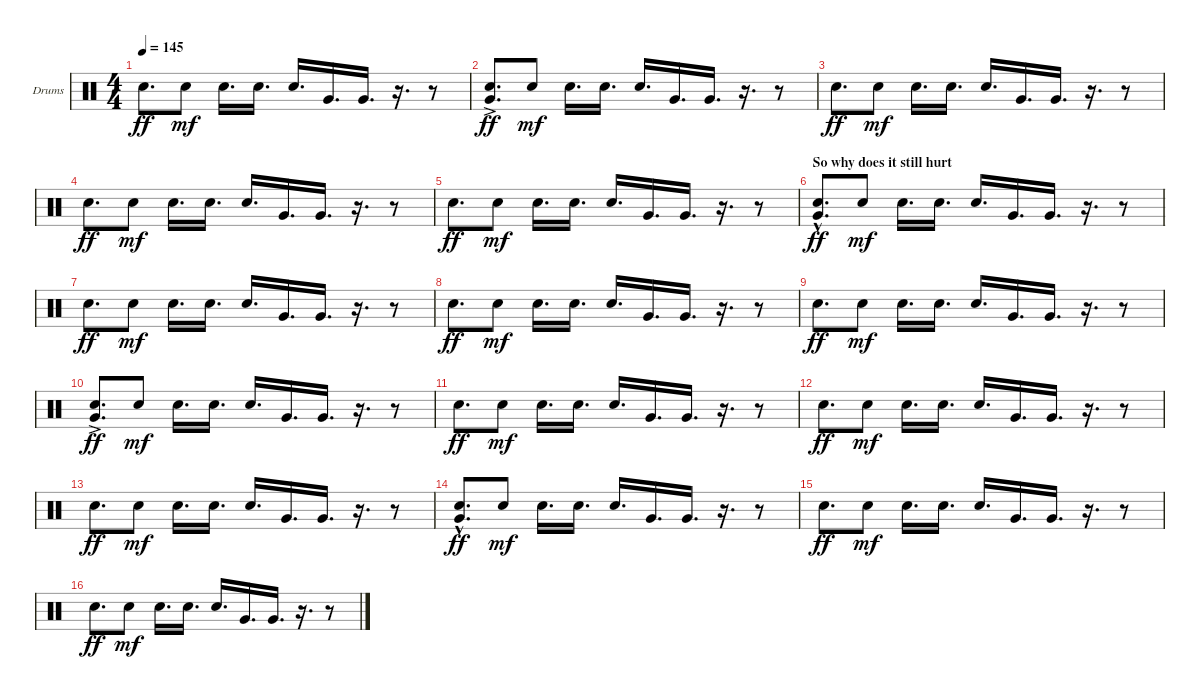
\defaultSystemsLayout 4
\bracketExtendMode groupsimilarinstruments
\firstSystemTrackNameOrientation horizontal
\otherSystemsTrackNameOrientation horizontal
\track ("Drumkit" "Drums") {instrument percussion}
\staff {score}
\articulation defaults
\ts (4 4)
\tempo 145
\clef neutral
\ks c "Snare (hit) 2".8{d dy ff} "Snare (hit) 2".8{dy mf} "Snare (hit) 2".16{d} "Snare (hit) 2".16{d} "Snare (hit) 2".16{d} "Very Low Tom (hit)".16{d} "Very Low Tom (hit)".16{d}
r.16{d} r.8 |
("Snare (hit) 2" "Very Low Tom (hit)"{ac}).8{d dy ff} "Snare (hit) 2".8{dy mf} "Snare (hit) 2".16{d} "Snare (hit) 2".16{d} "Snare (hit) 2".16{d} "Very Low Tom (hit)".16{d} "Very Low Tom (hit)".16{d} r.16{d} r.8 |
"Snare (hit) 2".8{d dy ff} "Snare (hit) 2".8{dy mf} "Snare (hit) 2".16{d} "Snare (hit) 2".16{d} "Snare (hit) 2".16{d} "Very Low Tom (hit)".16{d} "Very Low Tom (hit)".16{d} r.16{d} r.8 |
"Snare (hit) 2".8{d dy ff} "Snare (hit) 2".8{dy mf} "Snare (hit) 2".16{d} "Snare (hit) 2".16{d} "Snare (hit) 2".16{d} "Very Low Tom (hit)".16{d} "Very Low Tom (hit)".16{d} r.16{d} r.8 |
"Snare (hit) 2".8{d dy ff} "Snare (hit) 2".8{dy mf} "Snare (hit) 2".16{d} "Snare (hit) 2".16{d} "Snare (hit) 2".16{d} "Very Low Tom (hit)".16{d} "Very Low Tom (hit)".16{d} r.16{d} r.8 |
\section ("" "So why does it still hurt")
("Snare (hit) 2" "Very Low Tom (hit)"{hac}).8{d dy ff} "Snare (hit) 2".8{dy mf} "Snare (hit) 2".16{d} "Snare (hit) 2".16{d} "Snare (hit) 2".16{d} "Very Low Tom (hit)".16{d} "Very Low Tom (hit)".16{d} r.16{d} r.8 |
"Snare (hit) 2".8{d dy ff} "Snare (hit) 2".8{dy mf} "Snare (hit) 2".16{d} "Snare (hit) 2".16{d} "Snare (hit) 2".16{d} "Very Low Tom (hit)".16{d} "Very Low Tom (hit)".16{d} r.16{d} r.8 |
"Snare (hit) 2".8{d dy ff} "Snare (hit) 2".8{dy mf} "Snare (hit) 2".16{d} "Snare (hit) 2".16{d} "Snare (hit) 2".16{d} "Very Low Tom (hit)".16{d} "Very Low Tom (hit)".16{d} r.16{d} r.8 |
"Snare (hit) 2".8{d dy ff} "Snare (hit) 2".8{dy mf} "Snare (hit) 2".16{d} "Snare (hit) 2".16{d} "Snare (hit) 2".16{d} "Very Low Tom (hit)".16{d} "Very Low Tom (hit)".16{d} r.16{d} r.8 |
("Snare (hit) 2" "Very Low Tom (hit)"{ac}).8{d dy ff} "Snare (hit) 2".8{dy mf} "Snare (hit) 2".16{d} "Snare (hit) 2".16{d} "Snare (hit) 2".16{d} "Very Low Tom (hit)".16{d} "Very Low Tom (hit)".16{d} r.16{d} r.8 |
"Snare (hit) 2".8{d dy ff} "Snare (hit) 2".8{dy mf} "Snare (hit) 2".16{d} "Snare (hit) 2".16{d} "Snare (hit) 2".16{d} "Very Low Tom (hit)".16{d} "Very Low Tom (hit)".16{d} r.16{d} r.8 |
"Snare (hit) 2".8{d dy ff} "Snare (hit) 2".8{dy mf} "Snare (hit) 2".16{d} "Snare (hit) 2".16{d} "Snare (hit) 2".16{d} "Very Low Tom (hit)".16{d} "Very Low Tom (hit)".16{d} r.16{d} r.8 |
"Snare (hit) 2".8{d dy ff} "Snare (hit) 2".8{dy mf} "Snare (hit) 2".16{d} "Snare (hit) 2".16{d} "Snare (hit) 2".16{d} "Very Low Tom (hit)".16{d} "Very Low Tom (hit)".16{d} r.16{d} r.8 |
("Snare (hit) 2" "Very Low Tom (hit)"{hac}).8{d dy ff} "Snare (hit) 2".8{dy mf} "Snare (hit) 2".16{d} "Snare (hit) 2".16{d} "Snare (hit) 2".16{d} "Very Low Tom (hit)".16{d} "Very Low Tom (hit)".16{d} r.16{d} r.8 |
"Snare (hit) 2".8{d dy ff} "Snare (hit) 2".8{dy mf} "Snare (hit) 2".16{d} "Snare (hit) 2".16{d} "Snare (hit) 2".16{d} "Very Low Tom (hit)".16{d} "Very Low Tom (hit)".16{d} r.16{d} r.8 |
"Snare (hit) 2".8{d dy ff} "Snare (hit) 2".8{dy mf} "Snare (hit) 2".16{d} "Snare (hit) 2".16{d} "Snare (hit) 2".16{d} "Very Low Tom (hit)".16{d} "Very Low Tom (hit)".16{d} r.16{d} r.8
